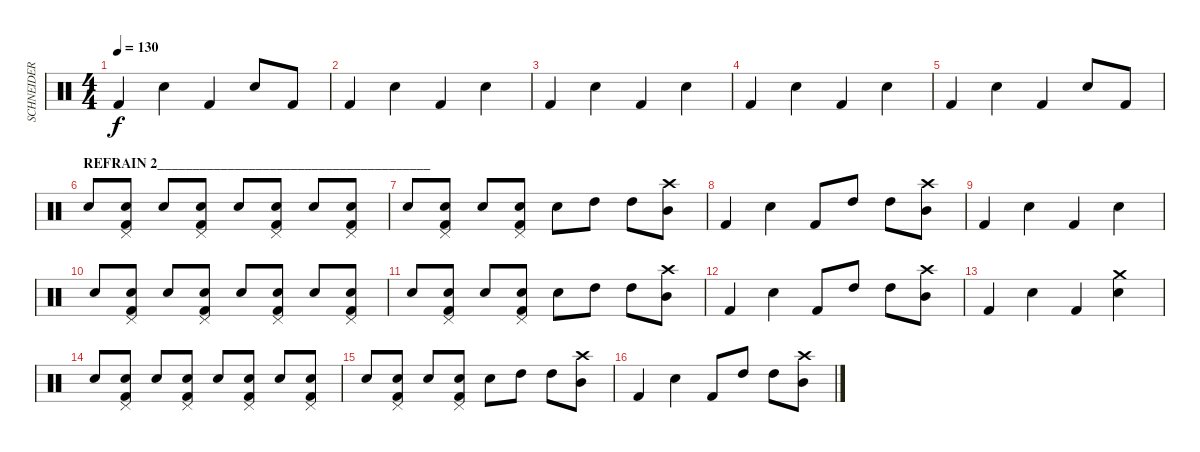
\track ("SCHNEIDER - Drums" "SCHNEIDER ") {instrument percussion}
\staff {score}
\articulation defaults
\ts (4 4)
\tempo 130
\clef neutral
\ks c "Kick (hit) 2".4{dy f} "Snare (hit) 2".4 "Kick (hit) 2".4 "Snare (hit) 2".8 "Kick (hit) 2".8
|
"Kick (hit) 2".4 "Snare (hit) 2".4 "Kick (hit) 2".4 "Snare (hit) 2".4 |
"Kick (hit) 2".4 "Snare (hit) 2".4 "Kick (hit) 2".4 "Snare (hit) 2".4 |
"Kick (hit) 2".4 "Snare (hit) 2".4 "Kick (hit) 2".4 "Snare (hit) 2".4 |
"Kick (hit) 2".4 "Snare (hit) 2".4 "Kick (hit) 2".4 "Snare (hit) 2".8 "Kick (hit) 2".8 |
\section ("" "REFRAIN 2_______________________________________")
"Snare (hit) 2".8 ("Snare (hit) 2" "Kick (hit) 2" "Pedal Hi-Hat (hit)").8 "Snare (hit) 2".8 ("Snare (hit) 2" "Kick (hit) 2" "Pedal Hi-Hat (hit)").8 "Snare (hit) 2".8 ("Snare (hit) 2" "Kick (hit) 2" "Pedal Hi-Hat (hit)").8 "Snare (hit) 2".8 ("Snare (hit) 2" "Kick (hit) 2" "Pedal Hi-Hat (hit)").8 |
"Snare (hit) 2".8 ("Snare (hit) 2" "Kick (hit) 2" "Pedal Hi-Hat (hit)").8 "Snare (hit) 2".8 ("Snare (hit) 2" "Kick (hit) 2" "Pedal Hi-Hat (hit)").8 "Snare (hit) 2".8 "High Tom (hit)".8 "High Tom (hit)".8 ("Mid Tom (hit)" "Crash high (hit)").8 |
"Kick (hit) 2".4 "Snare (hit) 2".4 "Kick (hit) 2".8 "High Tom (hit)".8 "High Tom (hit)".8 ("Mid Tom (hit)" "Crash high (hit)").8 |
"Kick (hit) 2".4 "Snare (hit) 2".4 "Kick (hit) 2".4 "Snare (hit) 2".4 |
"Snare (hit) 2".8 ("Snare (hit) 2" "Kick (hit) 2" "Pedal Hi-Hat (hit)").8 "Snare (hit) 2".8 ("Snare (hit) 2" "Kick (hit) 2" "Pedal Hi-Hat (hit)").8 "Snare (hit) 2".8 ("Snare (hit) 2" "Kick (hit) 2" "Pedal Hi-Hat (hit)").8 "Snare (hit) 2".8 ("Snare (hit) 2" "Kick (hit) 2" "Pedal Hi-Hat (hit)").8 |
"Snare (hit) 2".8 ("Snare (hit) 2" "Kick (hit) 2" "Pedal Hi-Hat (hit)").8 "Snare (hit) 2".8 ("Snare (hit) 2" "Kick (hit) 2" "Pedal Hi-Hat (hit)").8 "Snare (hit) 2".8 "High Tom (hit)".8 "High Tom (hit)".8 ("Mid Tom (hit)" "Crash high (hit)").8 |
"Kick (hit) 2".4 "Snare (hit) 2".4 "Kick (hit) 2".8 "High Tom (hit)".8 "High Tom (hit)".8 ("Mid Tom (hit)" "Crash high (hit)").8 |
"Kick (hit) 2".4 "Snare (hit) 2".4 "Kick (hit) 2".4 ("Snare (hit) 2" "Crash medium (hit)").4 |
"Snare (hit) 2".8 ("Snare (hit) 2" "Kick (hit) 2" "Pedal Hi-Hat (hit)").8 "Snare (hit) 2".8 ("Snare (hit) 2" "Kick (hit) 2" "Pedal Hi-Hat (hit)").8 "Snare (hit) 2".8 ("Snare (hit) 2" "Kick (hit) 2" "Pedal Hi-Hat (hit)").8 "Snare (hit) 2".8 ("Snare (hit) 2" "Kick (hit) 2" "Pedal Hi-Hat (hit)").8 |
"Snare (hit) 2".8 ("Snare (hit) 2" "Kick (hit) 2" "Pedal Hi-Hat (hit)").8 "Snare (hit) 2".8 ("Snare (hit) 2" "Kick (hit) 2" "Pedal Hi-Hat (hit)").8 "Snare (hit) 2".8 "High Tom (hit)".8 "High Tom (hit)".8 ("Mid Tom (hit)" "Crash high (hit)").8 |
"Kick (hit) 2".4 "Snare (hit) 2".4 "Kick (hit) 2".8 "High Tom (hit)".8 "High Tom (hit)".8 ("Mid Tom (hit)" "Crash high (hit)").8
